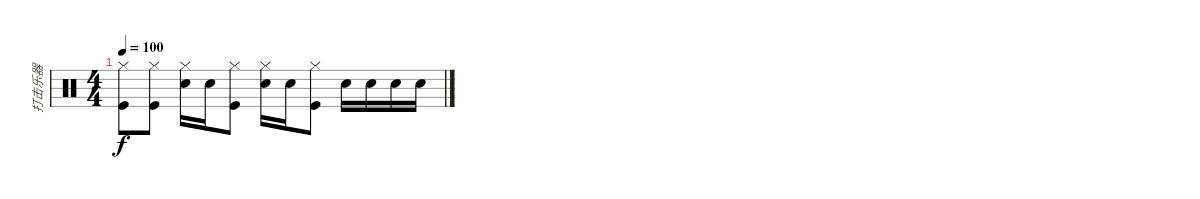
\track ("打击乐器" "打击乐器") {instrument percussion}
\staff {score}
\articulation defaults
\ts (4 4)
\tempo 100
\clef neutral
\ks c
("Hi-Hat (closed)" "Kick (hit)").8{dy f} ("Kick (hit)" "Hi-Hat (closed)").8 ("Hi-Hat (closed)" "Electric Snare (hit)").16 "Electric Snare (hit)".16 ("Hi-Hat (closed)" "Kick (hit)").8 ("Hi-Hat (closed)" "Electric Snare (hit)").16 "Electric Snare (hit)".16 ("Hi-Hat (closed)" "Kick (hit)").8 "Electric Snare (hit)".16 "Electric Snare (hit)".16 "Electric Snare (hit)".16 "Electric Snare (hit)".16
